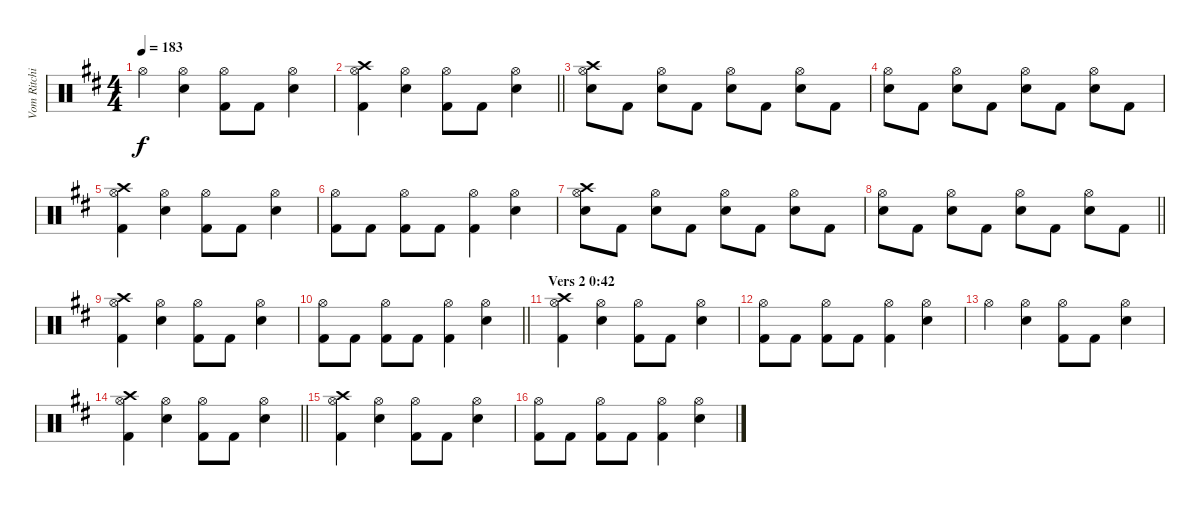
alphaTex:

\track ("Vom Ritchie" "Vom Ritchi") {instrument percussion}
\staff {score}
\articulation defaults
\ts (4 4)
\tempo 183
\clef neutral
\ks d "Hi-Hat (open)".4{dy f}
("Snare (hit) 2" "Hi-Hat (open)").4 ("Hi-Hat (open)" "Kick (hit) 2").8 "Kick (hit) 2".8 ("Snare (hit) 2" "Hi-Hat (open)").4 |
\barLineRight lightlight
("Crash high (hit)" "Hi-Hat (open)" "Kick (hit) 2").4 ("Snare (hit) 2" "Hi-Hat (open)").4 ("Hi-Hat (open)" "Kick (hit) 2").8 "Kick (hit) 2".8 ("Snare (hit) 2" "Hi-Hat (open)").4 |
("Crash high (hit)" "Snare (hit) 2" "Hi-Hat (open)").8 "Kick (hit) 2".8 ("Snare (hit) 2" "Hi-Hat (open)").8 "Kick (hit) 2".8 ("Snare (hit) 2" "Hi-Hat (open)").8 "Kick (hit) 2".8 ("Snare (hit) 2" "Hi-Hat (open)").8 "Kick (hit) 2".8 |
("Snare (hit) 2" "Hi-Hat (open)").8 "Kick (hit) 2".8 ("Snare (hit) 2" "Hi-Hat (open)").8 "Kick (hit) 2".8 ("Snare (hit) 2" "Hi-Hat (open)").8 "Kick (hit) 2".8 ("Snare (hit) 2" "Hi-Hat (open)").8 "Kick (hit) 2".8 |
("Crash high (hit)" "Hi-Hat (open)" "Kick (hit) 2").4 ("Snare (hit) 2" "Hi-Hat (open)").4 ("Hi-Hat (open)" "Kick (hit) 2").8 "Kick (hit) 2".8 ("Snare (hit) 2" "Hi-Hat (open)").4 |
("Hi-Hat (open)" "Kick (hit) 2").8 "Kick (hit) 2".8 ("Hi-Hat (open)" "Kick (hit) 2").8 "Kick (hit) 2".8 ("Hi-Hat (open)" "Kick (hit) 2").4 ("Hi-Hat (open)" "Snare (hit) 2").4 |
("Crash high (hit)" "Snare (hit) 2" "Hi-Hat (open)").8 "Kick (hit) 2".8 ("Snare (hit) 2" "Hi-Hat (open)").8 "Kick (hit) 2".8 ("Snare (hit) 2" "Hi-Hat (open)").8 "Kick (hit) 2".8 ("Snare (hit) 2" "Hi-Hat (open)").8 "Kick (hit) 2".8 |
\barLineRight lightlight
("Snare (hit) 2" "Hi-Hat (open)").8 "Kick (hit) 2".8 ("Snare (hit) 2" "Hi-Hat (open)").8 "Kick (hit) 2".8 ("Snare (hit) 2" "Hi-Hat (open)").8 "Kick (hit) 2".8 ("Snare (hit) 2" "Hi-Hat (open)").8 "Kick (hit) 2".8 |
("Crash high (hit)" "Hi-Hat (open)" "Kick (hit) 2").4 ("Snare (hit) 2" "Hi-Hat (open)").4 ("Hi-Hat (open)" "Kick (hit) 2").8 "Kick (hit) 2".8 ("Snare (hit) 2" "Hi-Hat (open)").4 |
\barLineRight lightlight
("Hi-Hat (open)" "Kick (hit) 2").8 "Kick (hit) 2".8 ("Hi-Hat (open)" "Kick (hit) 2").8 "Kick (hit) 2".8 ("Hi-Hat (open)" "Kick (hit) 2").4 ("Hi-Hat (open)" "Snare (hit) 2").4 |
\section ("" "Vers 2 0:42")
("Crash high (hit)" "Hi-Hat (open)" "Kick (hit) 2").4 ("Snare (hit) 2" "Hi-Hat (open)").4 ("Hi-Hat (open)" "Kick (hit) 2").8 "Kick (hit) 2".8 ("Snare (hit) 2" "Hi-Hat (open)").4 |
("Hi-Hat (open)" "Kick (hit) 2").8 "Kick (hit) 2".8 ("Hi-Hat (open)" "Kick (hit) 2").8 "Kick (hit) 2".8 ("Hi-Hat (open)" "Kick (hit) 2").4 ("Hi-Hat (open)" "Snare (hit) 2").4 |
"Hi-Hat (open)".4 ("Snare (hit) 2" "Hi-Hat (open)").4 ("Hi-Hat (open)" "Kick (hit) 2").8 "Kick (hit) 2".8 ("Snare (hit) 2" "Hi-Hat (open)").4 |
\barLineRight lightlight
("Crash high (hit)" "Hi-Hat (open)" "Kick (hit) 2").4 ("Snare (hit) 2" "Hi-Hat (open)").4 ("Hi-Hat (open)" "Kick (hit) 2").8 "Kick (hit) 2".8 ("Snare (hit) 2" "Hi-Hat (open)").4 |
("Crash high (hit)" "Hi-Hat (open)" "Kick (hit) 2").4 ("Snare (hit) 2" "Hi-Hat (open)").4 ("Hi-Hat (open)" "Kick (hit) 2").8 "Kick (hit) 2".8 ("Snare (hit) 2" "Hi-Hat (open)").4 |
("Hi-Hat (open)" "Kick (hit) 2").8 "Kick (hit) 2".8 ("Hi-Hat (open)" "Kick (hit) 2").8 "Kick (hit) 2".8 ("Hi-Hat (open)" "Kick (hit) 2").4 ("Hi-Hat (open)" "Snare (hit) 2").4
